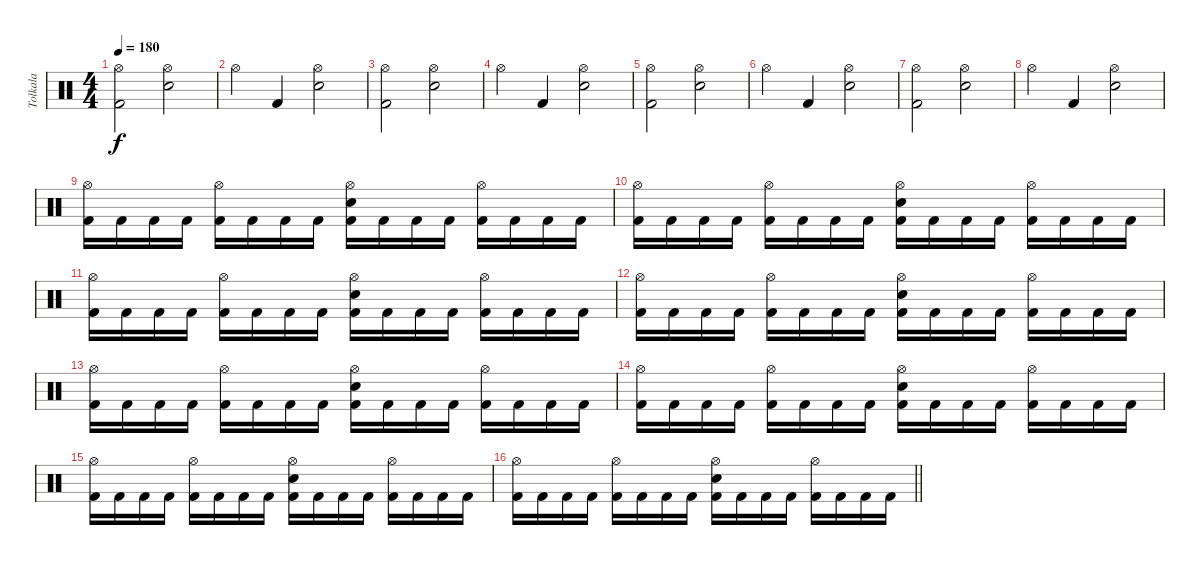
\track ("Tolkala" "Tolkala") {instrument percussion}
\staff {score}
\articulation defaults
\ts (4 4)
\section ("" "")
\tempo 180
\clef neutral
\ks c
("Hi-Hat (open)" "Kick (hit) 2").2{dy f} ("Hi-Hat (open)" "Electric Snare (hit)").2 |
"Hi-Hat (open)".4 "Kick (hit) 2".4 ("Hi-Hat (open)" "Electric Snare (hit)").2 |
("Hi-Hat (open)" "Kick (hit) 2").2 ("Hi-Hat (open)" "Electric Snare (hit)").2 |
"Hi-Hat (open)".4 "Kick (hit) 2".4 ("Hi-Hat (open)" "Electric Snare (hit)").2 |
("Hi-Hat (open)" "Kick (hit) 2").2 ("Hi-Hat (open)" "Electric Snare (hit)").2 |
"Hi-Hat (open)".4 "Kick (hit) 2".4 ("Hi-Hat (open)" "Electric Snare (hit)").2 |
("Hi-Hat (open)" "Kick (hit) 2").2 ("Hi-Hat (open)" "Electric Snare (hit)").2 |
"Hi-Hat (open)".4 "Kick (hit) 2".4 ("Hi-Hat (open)" "Electric Snare (hit)").2 |
("Hi-Hat (open)" "Kick (hit) 2").16 "Kick (hit) 2".16 "Kick (hit) 2".16 "Kick (hit) 2".16 ("Hi-Hat (open)" "Kick (hit) 2").16 "Kick (hit) 2".16 "Kick (hit) 2".16 "Kick (hit) 2".16 ("Hi-Hat (open)" "Electric Snare (hit)" "Kick (hit) 2").16 "Kick (hit) 2".16 "Kick (hit) 2".16 "Kick (hit) 2".16 ("Hi-Hat (open)" "Kick (hit) 2").16 "Kick (hit) 2".16 "Kick (hit) 2".16 "Kick (hit) 2".16 |
("Hi-Hat (open)" "Kick (hit) 2").16 "Kick (hit) 2".16 "Kick (hit) 2".16 "Kick (hit) 2".16 ("Hi-Hat (open)" "Kick (hit) 2").16 "Kick (hit) 2".16 "Kick (hit) 2".16 "Kick (hit) 2".16 ("Hi-Hat (open)" "Electric Snare (hit)" "Kick (hit) 2").16 "Kick (hit) 2".16 "Kick (hit) 2".16 "Kick (hit) 2".16 ("Hi-Hat (open)" "Kick (hit) 2").16 "Kick (hit) 2".16 "Kick (hit) 2".16 "Kick (hit) 2".16 |
("Hi-Hat (open)" "Kick (hit) 2").16 "Kick (hit) 2".16 "Kick (hit) 2".16 "Kick (hit) 2".16 ("Hi-Hat (open)" "Kick (hit) 2").16 "Kick (hit) 2".16 "Kick (hit) 2".16 "Kick (hit) 2".16 ("Hi-Hat (open)" "Electric Snare (hit)" "Kick (hit) 2").16 "Kick (hit) 2".16 "Kick (hit) 2".16 "Kick (hit) 2".16 ("Hi-Hat (open)" "Kick (hit) 2").16 "Kick (hit) 2".16 "Kick (hit) 2".16 "Kick (hit) 2".16 |
("Hi-Hat (open)" "Kick (hit) 2").16 "Kick (hit) 2".16 "Kick (hit) 2".16 "Kick (hit) 2".16 ("Hi-Hat (open)" "Kick (hit) 2").16 "Kick (hit) 2".16 "Kick (hit) 2".16 "Kick (hit) 2".16 ("Hi-Hat (open)" "Electric Snare (hit)" "Kick (hit) 2").16 "Kick (hit) 2".16 "Kick (hit) 2".16 "Kick (hit) 2".16 ("Hi-Hat (open)" "Kick (hit) 2").16 "Kick (hit) 2".16 "Kick (hit) 2".16 "Kick (hit) 2".16 |
("Hi-Hat (open)" "Kick (hit) 2").16 "Kick (hit) 2".16 "Kick (hit) 2".16 "Kick (hit) 2".16 ("Hi-Hat (open)" "Kick (hit) 2").16 "Kick (hit) 2".16 "Kick (hit) 2".16 "Kick (hit) 2".16 ("Hi-Hat (open)" "Electric Snare (hit)" "Kick (hit) 2").16 "Kick (hit) 2".16 "Kick (hit) 2".16 "Kick (hit) 2".16 ("Hi-Hat (open)" "Kick (hit) 2").16 "Kick (hit) 2".16 "Kick (hit) 2".16 "Kick (hit) 2".16 |
("Hi-Hat (open)" "Kick (hit) 2").16 "Kick (hit) 2".16 "Kick (hit) 2".16 "Kick (hit) 2".16 ("Hi-Hat (open)" "Kick (hit) 2").16 "Kick (hit) 2".16 "Kick (hit) 2".16 "Kick (hit) 2".16 ("Hi-Hat (open)" "Electric Snare (hit)" "Kick (hit) 2").16 "Kick (hit) 2".16 "Kick (hit) 2".16 "Kick (hit) 2".16 ("Hi-Hat (open)" "Kick (hit) 2").16 "Kick (hit) 2".16 "Kick (hit) 2".16 "Kick (hit) 2".16 |
("Hi-Hat (open)" "Kick (hit) 2").16 "Kick (hit) 2".16 "Kick (hit) 2".16 "Kick (hit) 2".16 ("Hi-Hat (open)" "Kick (hit) 2").16 "Kick (hit) 2".16 "Kick (hit) 2".16 "Kick (hit) 2".16 ("Hi-Hat (open)" "Electric Snare (hit)" "Kick (hit) 2").16 "Kick (hit) 2".16 "Kick (hit) 2".16 "Kick (hit) 2".16 ("Hi-Hat (open)" "Kick (hit) 2").16 "Kick (hit) 2".16 "Kick (hit) 2".16 "Kick (hit) 2".16 |
\barLineRight lightlight
("Hi-Hat (open)" "Kick (hit) 2").16 "Kick (hit) 2".16 "Kick (hit) 2".16 "Kick (hit) 2".16 ("Hi-Hat (open)" "Kick (hit) 2").16 "Kick (hit) 2".16 "Kick (hit) 2".16 "Kick (hit) 2".16 ("Hi-Hat (open)" "Electric Snare (hit)" "Kick (hit) 2").16 "Kick (hit) 2".16 "Kick (hit) 2".16 "Kick (hit) 2".16 ("Hi-Hat (open)" "Kick (hit) 2").16 "Kick (hit) 2".16 "Kick (hit) 2".16 "Kick (hit) 2".16
